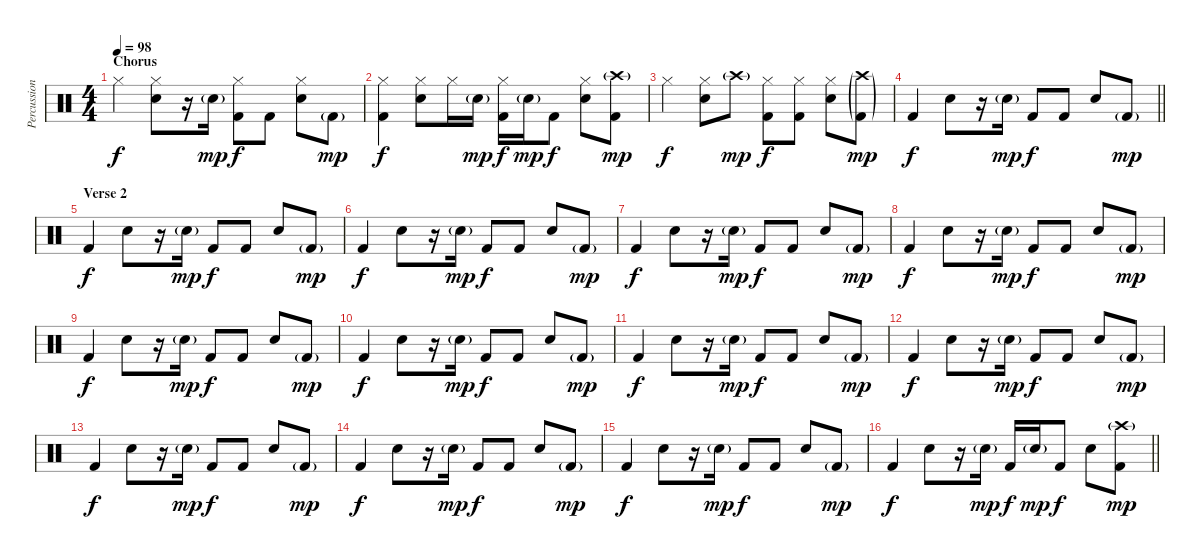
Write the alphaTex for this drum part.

\track ("Percussion" "Percussion") {instrument percussion}
\staff {score}
\articulation defaults
\ts (4 4)
\section ("" "Chorus")
\tempo 98
\clef neutral
\ks c "Hi-Hat (closed)".4{dy f}
("Hi-Hat (closed)" "Snare (hit) 2").8 r.16 "Snare (hit) 2"{g}.16{dy mp} ("Hi-Hat (closed)" "Kick (hit) 2").8{dy f} "Kick (hit) 2".8 ("Hi-Hat (closed)" "Snare (hit) 2").8 "Kick (hit) 2"{g}.8{dy mp} |
("Hi-Hat (closed)" "Kick (hit) 2").4{dy f} ("Hi-Hat (closed)" "Snare (hit) 2").8 "Hi-Hat (closed)".16 "Snare (hit) 2"{g}.16{dy mp} ("Hi-Hat (closed)" "Kick (hit) 2").16{dy f} "Snare (hit) 2"{g}.16{dy mp} "Kick (hit) 2".8{dy f} ("Hi-Hat (closed)" "Snare (hit) 2").8 ("Crash high (hit)"{g} "Kick (hit) 2").8{dy mp} |
"Hi-Hat (closed)".4{dy f} ("Hi-Hat (closed)" "Snare (hit) 2").8 "Crash high (hit)"{g}.8{dy mp} ("Hi-Hat (closed)" "Kick (hit) 2").8{dy f} ("Hi-Hat (closed)" "Kick (hit) 2").8 ("Hi-Hat (closed)" "Snare (hit) 2").8 ("Crash high (hit)"{g} "Kick (hit) 2"{g}).8{dy mp} |
\barLineRight lightlight "Kick (hit) 2".4{dy f} "Snare (hit) 2".8
r.16 "Snare (hit) 2"{g}.16{dy mp} "Kick (hit) 2".8{dy f} "Kick (hit) 2".8 "Snare (hit) 2".8 "Kick (hit) 2"{g}.8{dy mp} |
\section ("" "Verse 2")
"Kick (hit) 2".4{dy f} "Snare (hit) 2".8 r.16 "Snare (hit) 2"{g}.16{dy mp} "Kick (hit) 2".8{dy f} "Kick (hit) 2".8 "Snare (hit) 2".8 "Kick (hit) 2"{g}.8{dy mp} |
"Kick (hit) 2".4{dy f} "Snare (hit) 2".8 r.16 "Snare (hit) 2"{g}.16{dy mp} "Kick (hit) 2".8{dy f} "Kick (hit) 2".8 "Snare (hit) 2".8 "Kick (hit) 2"{g}.8{dy mp} |
"Kick (hit) 2".4{dy f} "Snare (hit) 2".8 r.16 "Snare (hit) 2"{g}.16{dy mp} "Kick (hit) 2".8{dy f} "Kick (hit) 2".8 "Snare (hit) 2".8 "Kick (hit) 2"{g}.8{dy mp} |
"Kick (hit) 2".4{dy f} "Snare (hit) 2".8 r.16 "Snare (hit) 2"{g}.16{dy mp} "Kick (hit) 2".8{dy f} "Kick (hit) 2".8 "Snare (hit) 2".8 "Kick (hit) 2"{g}.8{dy mp} |
"Kick (hit) 2".4{dy f} "Snare (hit) 2".8 r.16 "Snare (hit) 2"{g}.16{dy mp} "Kick (hit) 2".8{dy f} "Kick (hit) 2".8 "Snare (hit) 2".8 "Kick (hit) 2"{g}.8{dy mp} |
"Kick (hit) 2".4{dy f} "Snare (hit) 2".8 r.16 "Snare (hit) 2"{g}.16{dy mp} "Kick (hit) 2".8{dy f} "Kick (hit) 2".8 "Snare (hit) 2".8 "Kick (hit) 2"{g}.8{dy mp} |
"Kick (hit) 2".4{dy f} "Snare (hit) 2".8 r.16 "Snare (hit) 2"{g}.16{dy mp} "Kick (hit) 2".8{dy f} "Kick (hit) 2".8 "Snare (hit) 2".8 "Kick (hit) 2"{g}.8{dy mp} |
"Kick (hit) 2".4{dy f} "Snare (hit) 2".8 r.16 "Snare (hit) 2"{g}.16{dy mp} "Kick (hit) 2".8{dy f} "Kick (hit) 2".8 "Snare (hit) 2".8 "Kick (hit) 2"{g}.8{dy mp} |
"Kick (hit) 2".4{dy f} "Snare (hit) 2".8 r.16 "Snare (hit) 2"{g}.16{dy mp} "Kick (hit) 2".8{dy f} "Kick (hit) 2".8 "Snare (hit) 2".8 "Kick (hit) 2"{g}.8{dy mp} |
"Kick (hit) 2".4{dy f} "Snare (hit) 2".8 r.16 "Snare (hit) 2"{g}.16{dy mp} "Kick (hit) 2".8{dy f} "Kick (hit) 2".8 "Snare (hit) 2".8 "Kick (hit) 2"{g}.8{dy mp} |
"Kick (hit) 2".4{dy f} "Snare (hit) 2".8 r.16 "Snare (hit) 2"{g}.16{dy mp} "Kick (hit) 2".8{dy f} "Kick (hit) 2".8 "Snare (hit) 2".8 "Kick (hit) 2"{g}.8{dy mp} |
\barLineRight lightlight "Kick (hit) 2".4{dy f} "Snare (hit) 2".8
r.16 "Snare (hit) 2"{g}.16{dy mp} "Kick (hit) 2".16{dy f} "Snare (hit) 2"{g}.16{dy mp} "Kick (hit) 2".8{dy f} "Snare (hit) 2".8 ("Crash high (hit)"{g} "Kick (hit) 2").8{dy mp}
